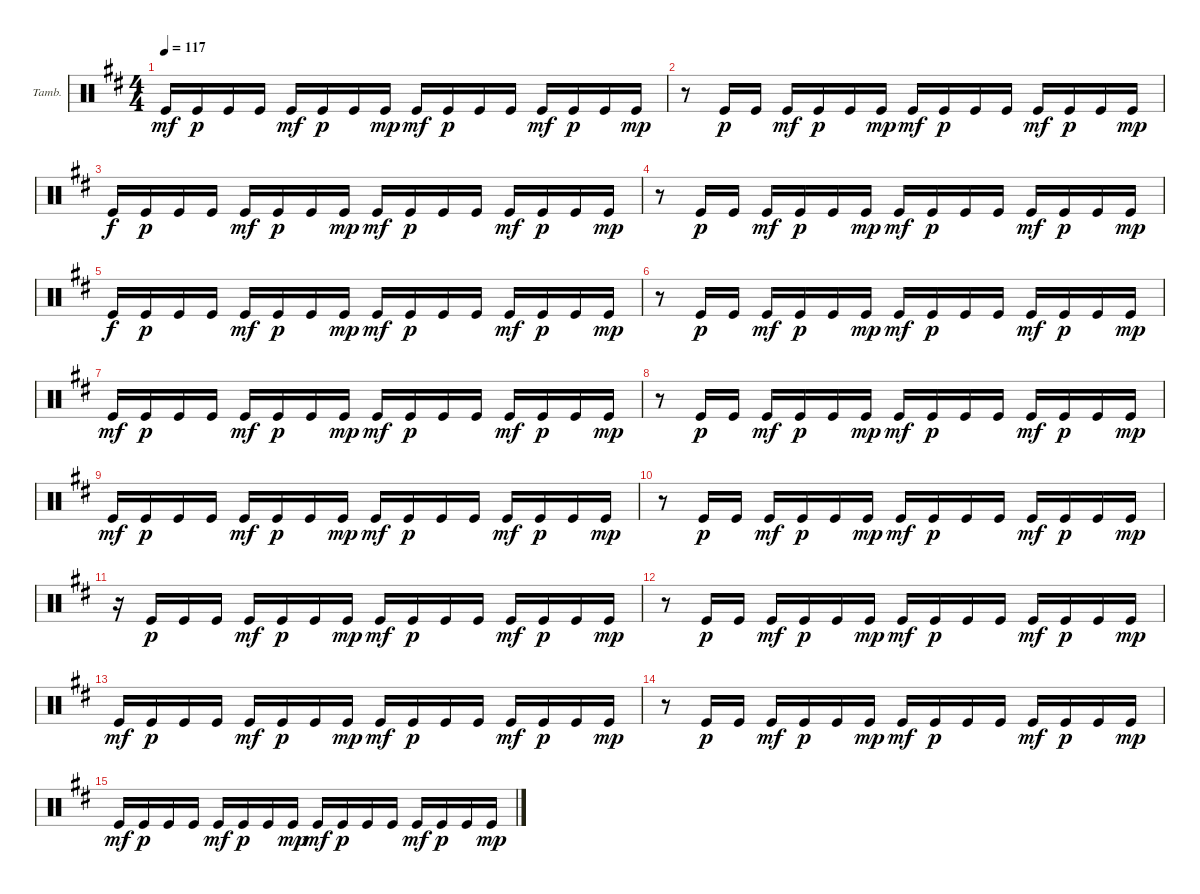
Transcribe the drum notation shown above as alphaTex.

\bracketExtendMode groupsimilarinstruments
\firstSystemTrackNameOrientation horizontal
\otherSystemsTrackNameOrientation horizontal
\track ("Tambourine" "Tamb.") {instrument percussion}
\staff {score}
\articulation defaults
\ts (4 4)
\tempo 117
\clef neutral
\ks d "Kick (hit)".16{dy mf} "Kick (hit)".16{dy p} "Kick (hit)".16 "Kick (hit)".16 "Kick (hit)".16{dy mf} "Kick (hit)".16{dy p} "Kick (hit)".16 "Kick (hit)".16{dy mp} "Kick (hit)".16{dy mf} "Kick (hit)".16{dy p} "Kick (hit)".16 "Kick (hit)".16 "Kick (hit)".16{dy mf} "Kick (hit)".16{dy p} "Kick (hit)".16 "Kick (hit)".16{dy mp}
|
r.8 "Kick (hit)".16{dy p} "Kick (hit)".16 "Kick (hit)".16{dy mf} "Kick (hit)".16{dy p} "Kick (hit)".16 "Kick (hit)".16{dy mp} "Kick (hit)".16{dy mf} "Kick (hit)".16{dy p} "Kick (hit)".16 "Kick (hit)".16 "Kick (hit)".16{dy mf} "Kick (hit)".16{dy p} "Kick (hit)".16 "Kick (hit)".16{dy mp} |
"Kick (hit)".16{dy f} "Kick (hit)".16{dy p} "Kick (hit)".16 "Kick (hit)".16 "Kick (hit)".16{dy mf} "Kick (hit)".16{dy p} "Kick (hit)".16 "Kick (hit)".16{dy mp} "Kick (hit)".16{dy mf} "Kick (hit)".16{dy p} "Kick (hit)".16 "Kick (hit)".16 "Kick (hit)".16{dy mf} "Kick (hit)".16{dy p} "Kick (hit)".16 "Kick (hit)".16{dy mp} |
r.8 "Kick (hit)".16{dy p} "Kick (hit)".16 "Kick (hit)".16{dy mf} "Kick (hit)".16{dy p} "Kick (hit)".16 "Kick (hit)".16{dy mp} "Kick (hit)".16{dy mf} "Kick (hit)".16{dy p} "Kick (hit)".16 "Kick (hit)".16 "Kick (hit)".16{dy mf} "Kick (hit)".16{dy p} "Kick (hit)".16 "Kick (hit)".16{dy mp} |
"Kick (hit)".16{dy f} "Kick (hit)".16{dy p} "Kick (hit)".16 "Kick (hit)".16 "Kick (hit)".16{dy mf} "Kick (hit)".16{dy p} "Kick (hit)".16 "Kick (hit)".16{dy mp} "Kick (hit)".16{dy mf} "Kick (hit)".16{dy p} "Kick (hit)".16 "Kick (hit)".16 "Kick (hit)".16{dy mf} "Kick (hit)".16{dy p} "Kick (hit)".16 "Kick (hit)".16{dy mp} |
r.8 "Kick (hit)".16{dy p} "Kick (hit)".16 "Kick (hit)".16{dy mf} "Kick (hit)".16{dy p} "Kick (hit)".16 "Kick (hit)".16{dy mp} "Kick (hit)".16{dy mf} "Kick (hit)".16{dy p} "Kick (hit)".16 "Kick (hit)".16 "Kick (hit)".16{dy mf} "Kick (hit)".16{dy p} "Kick (hit)".16 "Kick (hit)".16{dy mp} |
"Kick (hit)".16{dy mf} "Kick (hit)".16{dy p} "Kick (hit)".16 "Kick (hit)".16 "Kick (hit)".16{dy mf} "Kick (hit)".16{dy p} "Kick (hit)".16 "Kick (hit)".16{dy mp} "Kick (hit)".16{dy mf} "Kick (hit)".16{dy p} "Kick (hit)".16 "Kick (hit)".16 "Kick (hit)".16{dy mf} "Kick (hit)".16{dy p} "Kick (hit)".16 "Kick (hit)".16{dy mp} |
r.8 "Kick (hit)".16{dy p} "Kick (hit)".16 "Kick (hit)".16{dy mf} "Kick (hit)".16{dy p} "Kick (hit)".16 "Kick (hit)".16{dy mp} "Kick (hit)".16{dy mf} "Kick (hit)".16{dy p} "Kick (hit)".16 "Kick (hit)".16 "Kick (hit)".16{dy mf} "Kick (hit)".16{dy p} "Kick (hit)".16 "Kick (hit)".16{dy mp} |
"Kick (hit)".16{dy mf} "Kick (hit)".16{dy p} "Kick (hit)".16 "Kick (hit)".16 "Kick (hit)".16{dy mf} "Kick (hit)".16{dy p} "Kick (hit)".16 "Kick (hit)".16{dy mp} "Kick (hit)".16{dy mf} "Kick (hit)".16{dy p} "Kick (hit)".16 "Kick (hit)".16 "Kick (hit)".16{dy mf} "Kick (hit)".16{dy p} "Kick (hit)".16 "Kick (hit)".16{dy mp} |
r.8 "Kick (hit)".16{dy p} "Kick (hit)".16 "Kick (hit)".16{dy mf} "Kick (hit)".16{dy p} "Kick (hit)".16 "Kick (hit)".16{dy mp} "Kick (hit)".16{dy mf} "Kick (hit)".16{dy p} "Kick (hit)".16 "Kick (hit)".16 "Kick (hit)".16{dy mf} "Kick (hit)".16{dy p} "Kick (hit)".16 "Kick (hit)".16{dy mp} |
r.16 "Kick (hit)".16{dy p} "Kick (hit)".16 "Kick (hit)".16 "Kick (hit)".16{dy mf} "Kick (hit)".16{dy p} "Kick (hit)".16 "Kick (hit)".16{dy mp} "Kick (hit)".16{dy mf} "Kick (hit)".16{dy p} "Kick (hit)".16 "Kick (hit)".16 "Kick (hit)".16{dy mf} "Kick (hit)".16{dy p} "Kick (hit)".16 "Kick (hit)".16{dy mp} |
r.8 "Kick (hit)".16{dy p} "Kick (hit)".16 "Kick (hit)".16{dy mf} "Kick (hit)".16{dy p} "Kick (hit)".16 "Kick (hit)".16{dy mp} "Kick (hit)".16{dy mf} "Kick (hit)".16{dy p} "Kick (hit)".16 "Kick (hit)".16 "Kick (hit)".16{dy mf} "Kick (hit)".16{dy p} "Kick (hit)".16 "Kick (hit)".16{dy mp} |
"Kick (hit)".16{dy mf} "Kick (hit)".16{dy p} "Kick (hit)".16 "Kick (hit)".16 "Kick (hit)".16{dy mf} "Kick (hit)".16{dy p} "Kick (hit)".16 "Kick (hit)".16{dy mp} "Kick (hit)".16{dy mf} "Kick (hit)".16{dy p} "Kick (hit)".16 "Kick (hit)".16 "Kick (hit)".16{dy mf} "Kick (hit)".16{dy p} "Kick (hit)".16 "Kick (hit)".16{dy mp} |
r.8 "Kick (hit)".16{dy p} "Kick (hit)".16 "Kick (hit)".16{dy mf} "Kick (hit)".16{dy p} "Kick (hit)".16 "Kick (hit)".16{dy mp} "Kick (hit)".16{dy mf} "Kick (hit)".16{dy p} "Kick (hit)".16 "Kick (hit)".16 "Kick (hit)".16{dy mf} "Kick (hit)".16{dy p} "Kick (hit)".16 "Kick (hit)".16{dy mp} |
"Kick (hit)".16{dy mf} "Kick (hit)".16{dy p} "Kick (hit)".16 "Kick (hit)".16 "Kick (hit)".16{dy mf} "Kick (hit)".16{dy p} "Kick (hit)".16 "Kick (hit)".16{dy mp} "Kick (hit)".16{dy mf} "Kick (hit)".16{dy p} "Kick (hit)".16 "Kick (hit)".16 "Kick (hit)".16{dy mf} "Kick (hit)".16{dy p} "Kick (hit)".16 "Kick (hit)".16{dy mp}
